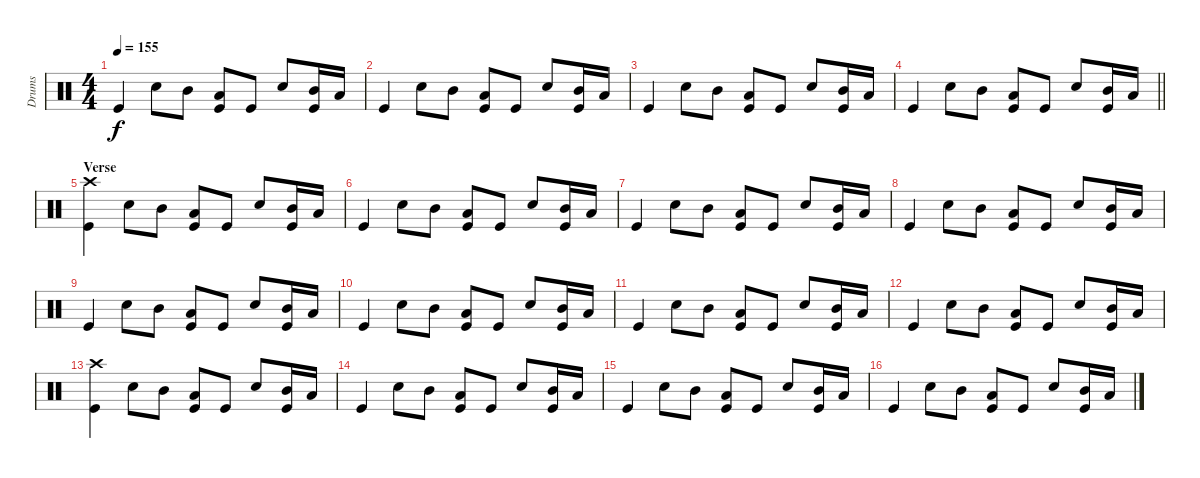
\track ("Drums" "Drums") {instrument percussion}
\staff {score}
\articulation defaults
\ts (4 4)
\tempo 155
\clef neutral
\ks c "Kick (hit)".4{dy f} "Snare (hit) 2".8 "Mid Tom (hit)".8
("Low Tom (hit)" "Kick (hit)").8 "Kick (hit)".8 "Snare (hit) 2".8 ("Mid Tom (hit)" "Kick (hit)").16 "Low Tom (hit)".16 |
"Kick (hit)".4 "Snare (hit) 2".8 "Mid Tom (hit)".8 ("Low Tom (hit)" "Kick (hit)").8 "Kick (hit)".8 "Snare (hit) 2".8 ("Mid Tom (hit)" "Kick (hit)").16 "Low Tom (hit)".16 |
"Kick (hit)".4 "Snare (hit) 2".8 "Mid Tom (hit)".8 ("Low Tom (hit)" "Kick (hit)").8 "Kick (hit)".8 "Snare (hit) 2".8 ("Mid Tom (hit)" "Kick (hit)").16 "Low Tom (hit)".16 |
\barLineRight lightlight "Kick (hit)".4 "Snare (hit) 2".8 "Mid Tom (hit)".8
("Low Tom (hit)" "Kick (hit)").8 "Kick (hit)".8 "Snare (hit) 2".8 ("Mid Tom (hit)" "Kick (hit)").16 "Low Tom (hit)".16 |
\section ("" "Verse")
("Crash high (hit)" "Kick (hit)").4 "Snare (hit) 2".8 "Mid Tom (hit)".8 ("Low Tom (hit)" "Kick (hit)").8 "Kick (hit)".8 "Snare (hit) 2".8 ("Mid Tom (hit)" "Kick (hit)").16 "Low Tom (hit)".16 |
"Kick (hit)".4 "Snare (hit) 2".8 "Mid Tom (hit)".8 ("Low Tom (hit)" "Kick (hit)").8 "Kick (hit)".8 "Snare (hit) 2".8 ("Mid Tom (hit)" "Kick (hit)").16 "Low Tom (hit)".16 |
"Kick (hit)".4 "Snare (hit) 2".8 "Mid Tom (hit)".8 ("Low Tom (hit)" "Kick (hit)").8 "Kick (hit)".8 "Snare (hit) 2".8 ("Mid Tom (hit)" "Kick (hit)").16 "Low Tom (hit)".16 |
"Kick (hit)".4 "Snare (hit) 2".8 "Mid Tom (hit)".8 ("Low Tom (hit)" "Kick (hit)").8 "Kick (hit)".8 "Snare (hit) 2".8 ("Mid Tom (hit)" "Kick (hit)").16 "Low Tom (hit)".16 |
"Kick (hit)".4 "Snare (hit) 2".8 "Mid Tom (hit)".8 ("Low Tom (hit)" "Kick (hit)").8 "Kick (hit)".8 "Snare (hit) 2".8 ("Mid Tom (hit)" "Kick (hit)").16 "Low Tom (hit)".16 |
"Kick (hit)".4 "Snare (hit) 2".8 "Mid Tom (hit)".8 ("Low Tom (hit)" "Kick (hit)").8 "Kick (hit)".8 "Snare (hit) 2".8 ("Mid Tom (hit)" "Kick (hit)").16 "Low Tom (hit)".16 |
"Kick (hit)".4 "Snare (hit) 2".8 "Mid Tom (hit)".8 ("Low Tom (hit)" "Kick (hit)").8 "Kick (hit)".8 "Snare (hit) 2".8 ("Mid Tom (hit)" "Kick (hit)").16 "Low Tom (hit)".16 |
"Kick (hit)".4 "Snare (hit) 2".8 "Mid Tom (hit)".8 ("Low Tom (hit)" "Kick (hit)").8 "Kick (hit)".8 "Snare (hit) 2".8 ("Mid Tom (hit)" "Kick (hit)").16 "Low Tom (hit)".16 |
("Crash high (hit)" "Kick (hit)").4 "Snare (hit) 2".8 "Mid Tom (hit)".8 ("Low Tom (hit)" "Kick (hit)").8 "Kick (hit)".8 "Snare (hit) 2".8 ("Mid Tom (hit)" "Kick (hit)").16 "Low Tom (hit)".16 |
"Kick (hit)".4 "Snare (hit) 2".8 "Mid Tom (hit)".8 ("Low Tom (hit)" "Kick (hit)").8 "Kick (hit)".8 "Snare (hit) 2".8 ("Mid Tom (hit)" "Kick (hit)").16 "Low Tom (hit)".16 |
"Kick (hit)".4 "Snare (hit) 2".8 "Mid Tom (hit)".8 ("Low Tom (hit)" "Kick (hit)").8 "Kick (hit)".8 "Snare (hit) 2".8 ("Mid Tom (hit)" "Kick (hit)").16 "Low Tom (hit)".16 |
"Kick (hit)".4 "Snare (hit) 2".8 "Mid Tom (hit)".8 ("Low Tom (hit)" "Kick (hit)").8 "Kick (hit)".8 "Snare (hit) 2".8 ("Mid Tom (hit)" "Kick (hit)").16 "Low Tom (hit)".16
